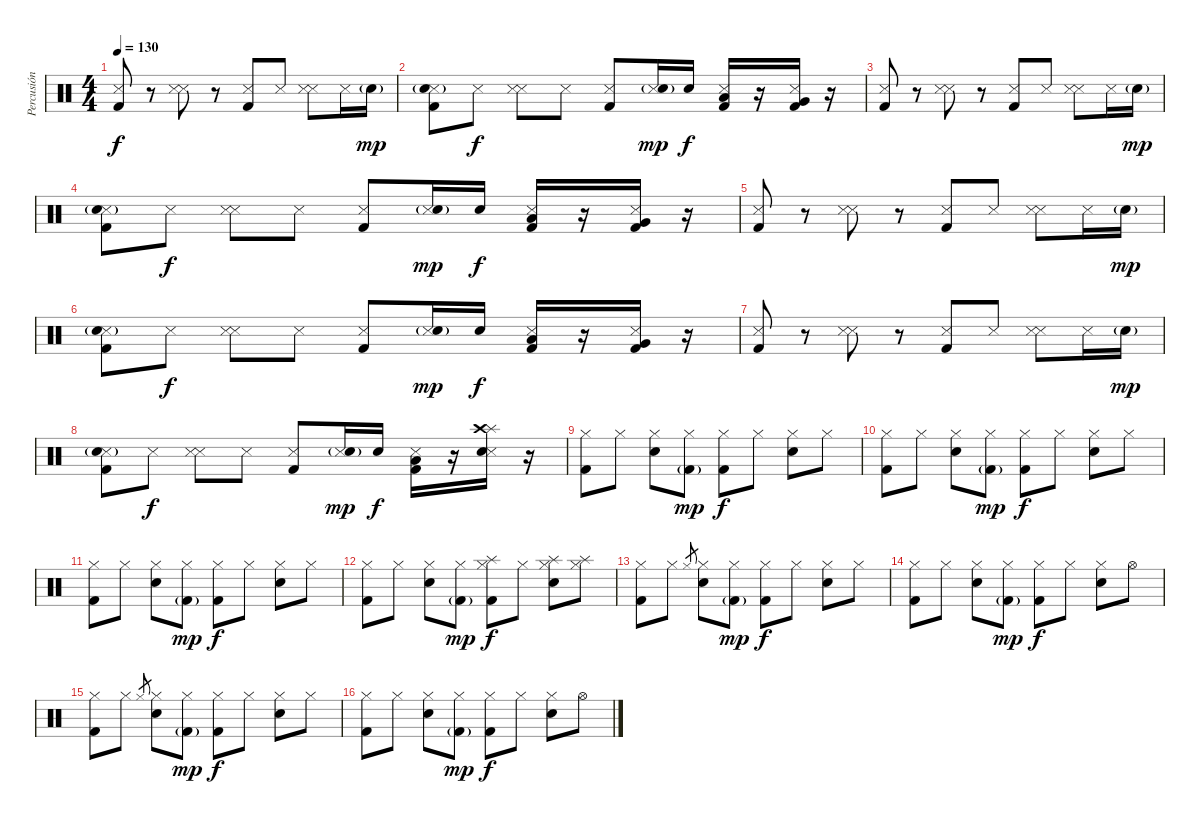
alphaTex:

\track ("Percusión" "Percusión") {instrument percussion}
\staff {score}
\articulation defaults
\ts (4 4)
\tempo 130
\clef neutral
\ks c
("Metronome (hit)" "Kick (hit) 2").8{dy f} r.8 ("Metronome (hit)" "Snare (side stick) 3").8 r.8 ("Metronome (hit)" "Kick (hit) 2").8 "Metronome (hit)".8 ("Metronome (hit)" "Snare (side stick) 3").8 "Metronome (hit)".16 "Snare (hit) 2"{g}.16{dy mp} |
("Metronome (hit)" "Kick (hit) 2" "Snare (hit) 2"{g}).8 "Metronome (hit)".8{dy f} ("Metronome (hit)" "Snare (side stick) 3").8 "Metronome (hit)".8 ("Metronome (hit)" "Kick (hit) 2").8 ("Metronome (hit)" "Snare (hit) 2"{g}).16{dy mp} "Snare (hit) 2".16{dy f} ("Metronome (hit)" "Low Tom (hit)" "Kick (hit) 2").16 r.16 ("Metronome (hit)" "Very Low Tom (hit)" "Kick (hit) 2").16 r.16 |
("Metronome (hit)" "Kick (hit) 2").8 r.8 ("Metronome (hit)" "Snare (side stick) 3").8 r.8 ("Metronome (hit)" "Kick (hit) 2").8 "Metronome (hit)".8 ("Metronome (hit)" "Snare (side stick) 3").8 "Metronome (hit)".16 "Snare (hit) 2"{g}.16{dy mp} |
("Metronome (hit)" "Kick (hit) 2" "Snare (hit) 2"{g}).8 "Metronome (hit)".8{dy f} ("Metronome (hit)" "Snare (side stick) 3").8 "Metronome (hit)".8 ("Metronome (hit)" "Kick (hit) 2").8 ("Metronome (hit)" "Snare (hit) 2"{g}).16{dy mp} "Snare (hit) 2".16{dy f} ("Metronome (hit)" "Low Tom (hit)" "Kick (hit) 2").16 r.16 ("Metronome (hit)" "Very Low Tom (hit)" "Kick (hit) 2").16 r.16 |
("Metronome (hit)" "Kick (hit) 2").8 r.8 ("Metronome (hit)" "Snare (side stick) 3").8 r.8 ("Metronome (hit)" "Kick (hit) 2").8 "Metronome (hit)".8 ("Metronome (hit)" "Snare (side stick) 3").8 "Metronome (hit)".16 "Snare (hit) 2"{g}.16{dy mp} |
("Metronome (hit)" "Kick (hit) 2" "Snare (hit) 2"{g}).8 "Metronome (hit)".8{dy f} ("Metronome (hit)" "Snare (side stick) 3").8 "Metronome (hit)".8 ("Metronome (hit)" "Kick (hit) 2").8 ("Metronome (hit)" "Snare (hit) 2"{g}).16{dy mp} "Snare (hit) 2".16{dy f} ("Metronome (hit)" "Low Tom (hit)" "Kick (hit) 2").16 r.16 ("Metronome (hit)" "Very Low Tom (hit)" "Kick (hit) 2").16 r.16 |
("Metronome (hit)" "Kick (hit) 2").8 r.8 ("Metronome (hit)" "Snare (side stick) 3").8 r.8 ("Metronome (hit)" "Kick (hit) 2").8 "Metronome (hit)".8 ("Metronome (hit)" "Snare (side stick) 3").8 "Metronome (hit)".16 "Snare (hit) 2"{g}.16{dy mp} |
("Metronome (hit)" "Kick (hit) 2" "Snare (hit) 2"{g}).8 "Metronome (hit)".8{dy f} ("Metronome (hit)" "Snare (side stick) 3").8 "Metronome (hit)".8 ("Metronome (hit)" "Kick (hit) 2").8 ("Metronome (hit)" "Snare (hit) 2"{g}).16{dy mp} "Snare (hit) 2".16{dy f} ("Metronome (hit)" "Kick (hit) 2" "Low Tom (hit)").16 r.16 ("Metronome (hit)" "Snare (hit) 2" "Splash (hit)" "Crash high (hit)").16 r.16 |
("Hi-Hat (closed)" "Kick (hit) 2").8 "Hi-Hat (closed)".8 ("Hi-Hat (closed)" "Snare (hit) 2").8 ("Hi-Hat (closed)" "Kick (hit) 2"{g}).8{dy mp} ("Hi-Hat (closed)" "Kick (hit) 2").8{dy f} "Hi-Hat (closed)".8 ("Hi-Hat (closed)" "Snare (hit) 2").8 "Hi-Hat (closed)".8 |
("Hi-Hat (closed)" "Kick (hit) 2").8 "Hi-Hat (closed)".8 ("Hi-Hat (closed)" "Snare (hit) 2").8 ("Hi-Hat (closed)" "Kick (hit) 2"{g}).8{dy mp} ("Hi-Hat (closed)" "Kick (hit) 2").8{dy f} "Hi-Hat (closed)".8 ("Hi-Hat (closed)" "Snare (hit) 2").8 "Hi-Hat (closed)".8 |
("Hi-Hat (closed)" "Kick (hit) 2").8 "Hi-Hat (closed)".8 ("Hi-Hat (closed)" "Snare (hit) 2").8 ("Hi-Hat (closed)" "Kick (hit) 2"{g}).8{dy mp} ("Hi-Hat (closed)" "Kick (hit) 2").8{dy f} "Hi-Hat (closed)".8 ("Hi-Hat (closed)" "Snare (hit) 2").8 "Hi-Hat (closed)".8 |
("Hi-Hat (closed)" "Kick (hit) 2").8 "Hi-Hat (closed)".8 ("Hi-Hat (closed)" "Snare (hit) 2").8 ("Hi-Hat (closed)" "Kick (hit) 2"{g}).8{dy mp} ("Hi-Hat (closed)" "Kick (hit) 2" "Splash (hit)").8{dy f} "Hi-Hat (closed)".8 ("Hi-Hat (closed)" "Snare (hit) 2" "Splash (hit)").8 ("Hi-Hat (closed)" "Splash (hit)").8 |
("Hi-Hat (closed)" "Kick (hit) 2").8 "Hi-Hat (closed)".8 "Hi-Hat (closed)".8{gr} ("Hi-Hat (closed)" "Snare (hit) 2").8 ("Hi-Hat (closed)" "Kick (hit) 2"{g}).8{dy mp} ("Hi-Hat (closed)" "Kick (hit) 2").8{dy f} "Hi-Hat (closed)".8 ("Hi-Hat (closed)" "Snare (hit) 2").8 "Hi-Hat (closed)".8 |
("Hi-Hat (closed)" "Kick (hit) 2").8 "Hi-Hat (closed)".8 ("Hi-Hat (closed)" "Snare (hit) 2").8 ("Hi-Hat (closed)" "Kick (hit) 2"{g}).8{dy mp} ("Hi-Hat (closed)" "Kick (hit) 2").8{dy f} "Hi-Hat (closed)".8 ("Hi-Hat (closed)" "Snare (hit) 2").8 "Hi-Hat (open)".8 |
("Hi-Hat (closed)" "Kick (hit) 2").8 "Hi-Hat (closed)".8 "Hi-Hat (closed)".8{gr} ("Hi-Hat (closed)" "Snare (hit) 2").8 ("Hi-Hat (closed)" "Kick (hit) 2"{g}).8{dy mp} ("Hi-Hat (closed)" "Kick (hit) 2").8{dy f} "Hi-Hat (closed)".8 ("Hi-Hat (closed)" "Snare (hit) 2").8 "Hi-Hat (closed)".8 |
("Hi-Hat (closed)" "Kick (hit) 2").8 "Hi-Hat (closed)".8 ("Hi-Hat (closed)" "Snare (hit) 2").8 ("Hi-Hat (closed)" "Kick (hit) 2"{g}).8{dy mp} ("Hi-Hat (closed)" "Kick (hit) 2").8{dy f} "Hi-Hat (closed)".8 ("Hi-Hat (closed)" "Snare (hit) 2").8 "Hi-Hat (open)".8
